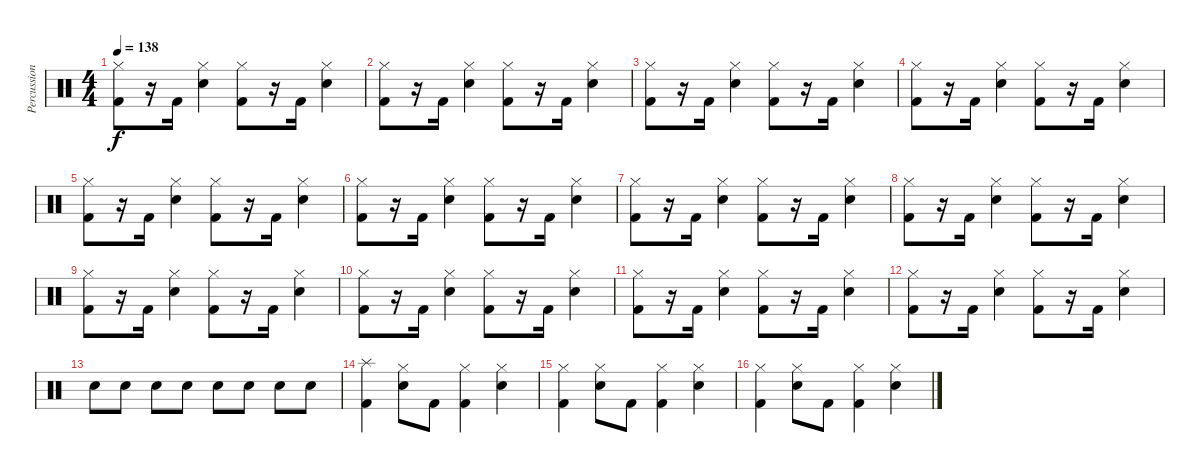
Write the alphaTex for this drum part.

\track ("Percussions" "Percussion") {instrument percussion}
\staff {score}
\articulation defaults
\ts (4 4)
\tempo 138
\clef neutral
\ks c
("Hi-Hat (closed)" "Kick (hit) 2").8{dy f} r.16 "Kick (hit) 2".16 ("Hi-Hat (closed)" "Snare (hit) 2").4 ("Hi-Hat (closed)" "Kick (hit) 2").8 r.16 "Kick (hit) 2".16 ("Hi-Hat (closed)" "Snare (hit) 2").4 |
("Hi-Hat (closed)" "Kick (hit) 2").8 r.16 "Kick (hit) 2".16 ("Hi-Hat (closed)" "Snare (hit) 2").4 ("Hi-Hat (closed)" "Kick (hit) 2").8 r.16 "Kick (hit) 2".16 ("Hi-Hat (closed)" "Snare (hit) 2").4 |
("Hi-Hat (closed)" "Kick (hit) 2").8 r.16 "Kick (hit) 2".16 ("Hi-Hat (closed)" "Snare (hit) 2").4 ("Hi-Hat (closed)" "Kick (hit) 2").8 r.16 "Kick (hit) 2".16 ("Hi-Hat (closed)" "Snare (hit) 2").4 |
("Hi-Hat (closed)" "Kick (hit) 2").8 r.16 "Kick (hit) 2".16 ("Hi-Hat (closed)" "Snare (hit) 2").4 ("Hi-Hat (closed)" "Kick (hit) 2").8 r.16 "Kick (hit) 2".16 ("Hi-Hat (closed)" "Snare (hit) 2").4 |
("Hi-Hat (closed)" "Kick (hit) 2").8 r.16 "Kick (hit) 2".16 ("Hi-Hat (closed)" "Snare (hit) 2").4 ("Hi-Hat (closed)" "Kick (hit) 2").8 r.16 "Kick (hit) 2".16 ("Hi-Hat (closed)" "Snare (hit) 2").4 |
("Hi-Hat (closed)" "Kick (hit) 2").8 r.16 "Kick (hit) 2".16 ("Hi-Hat (closed)" "Snare (hit) 2").4 ("Hi-Hat (closed)" "Kick (hit) 2").8 r.16 "Kick (hit) 2".16 ("Hi-Hat (closed)" "Snare (hit) 2").4 |
("Hi-Hat (closed)" "Kick (hit) 2").8 r.16 "Kick (hit) 2".16 ("Hi-Hat (closed)" "Snare (hit) 2").4 ("Hi-Hat (closed)" "Kick (hit) 2").8 r.16 "Kick (hit) 2".16 ("Hi-Hat (closed)" "Snare (hit) 2").4 |
("Hi-Hat (closed)" "Kick (hit) 2").8 r.16 "Kick (hit) 2".16 ("Hi-Hat (closed)" "Snare (hit) 2").4 ("Hi-Hat (closed)" "Kick (hit) 2").8 r.16 "Kick (hit) 2".16 ("Hi-Hat (closed)" "Snare (hit) 2").4 |
("Hi-Hat (closed)" "Kick (hit) 2").8 r.16 "Kick (hit) 2".16 ("Hi-Hat (closed)" "Snare (hit) 2").4 ("Hi-Hat (closed)" "Kick (hit) 2").8 r.16 "Kick (hit) 2".16 ("Hi-Hat (closed)" "Snare (hit) 2").4 |
("Hi-Hat (closed)" "Kick (hit) 2").8 r.16 "Kick (hit) 2".16 ("Hi-Hat (closed)" "Snare (hit) 2").4 ("Hi-Hat (closed)" "Kick (hit) 2").8 r.16 "Kick (hit) 2".16 ("Hi-Hat (closed)" "Snare (hit) 2").4 |
("Hi-Hat (closed)" "Kick (hit) 2").8 r.16 "Kick (hit) 2".16 ("Hi-Hat (closed)" "Snare (hit) 2").4 ("Hi-Hat (closed)" "Kick (hit) 2").8 r.16 "Kick (hit) 2".16 ("Hi-Hat (closed)" "Snare (hit) 2").4 |
("Hi-Hat (closed)" "Kick (hit) 2").8 r.16 "Kick (hit) 2".16 ("Hi-Hat (closed)" "Snare (hit) 2").4 ("Hi-Hat (closed)" "Kick (hit) 2").8 r.16 "Kick (hit) 2".16 ("Hi-Hat (closed)" "Snare (hit) 2").4 |
"Snare (hit) 2".8 "Snare (hit) 2".8 "Snare (hit) 2".8 "Snare (hit) 2".8 "Snare (hit) 2".8 "Snare (hit) 2".8 "Snare (hit) 2".8 "Snare (hit) 2".8 |
("Splash (hit)" "Kick (hit) 2").4 ("Hi-Hat (closed)" "Snare (hit) 2").8 "Kick (hit) 2".8 ("Hi-Hat (closed)" "Kick (hit) 2").4 ("Hi-Hat (closed)" "Snare (hit) 2").4 |
("Hi-Hat (closed)" "Kick (hit) 2").4 ("Hi-Hat (closed)" "Snare (hit) 2").8 "Kick (hit) 2".8 ("Hi-Hat (closed)" "Kick (hit) 2").4 ("Hi-Hat (closed)" "Snare (hit) 2").4 |
("Hi-Hat (closed)" "Kick (hit) 2").4 ("Hi-Hat (closed)" "Snare (hit) 2").8 "Kick (hit) 2".8 ("Hi-Hat (closed)" "Kick (hit) 2").4 ("Hi-Hat (closed)" "Snare (hit) 2").4
